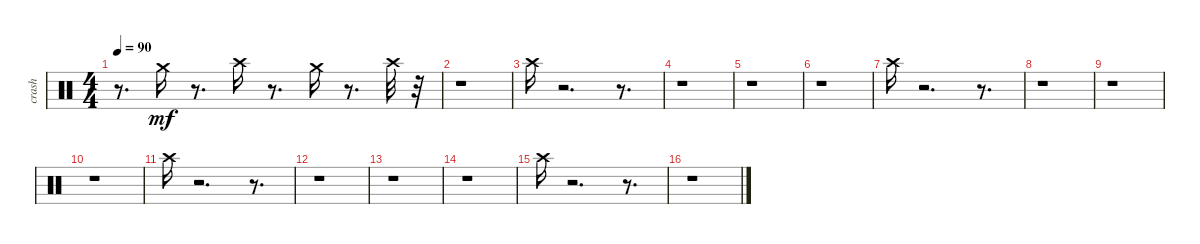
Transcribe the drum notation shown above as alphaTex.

\track ("crash" "crash") {instrument percussion}
\staff {score}
\articulation defaults
\ts (4 4)
\tempo 90
\clef neutral
\ks c
r.8{d dy mf} "Crash medium (hit)".16 r.8{d} "Crash high (hit)".16 r.8{d} "Crash medium (hit)".16 r.8{d} "Crash high (hit)".32 r.32 |
r.1 |
"Crash high (hit)".16 r.2{d} r.8{d} |
r.1 |
r.1 |
r.1 |
"Crash high (hit)".16 r.2{d} r.8{d} |
r.1 |
r.1 |
r.1 |
"Crash high (hit)".16 r.2{d} r.8{d} |
r.1 |
r.1 |
r.1 |
"Crash high (hit)".16 r.2{d} r.8{d} |
r.1
